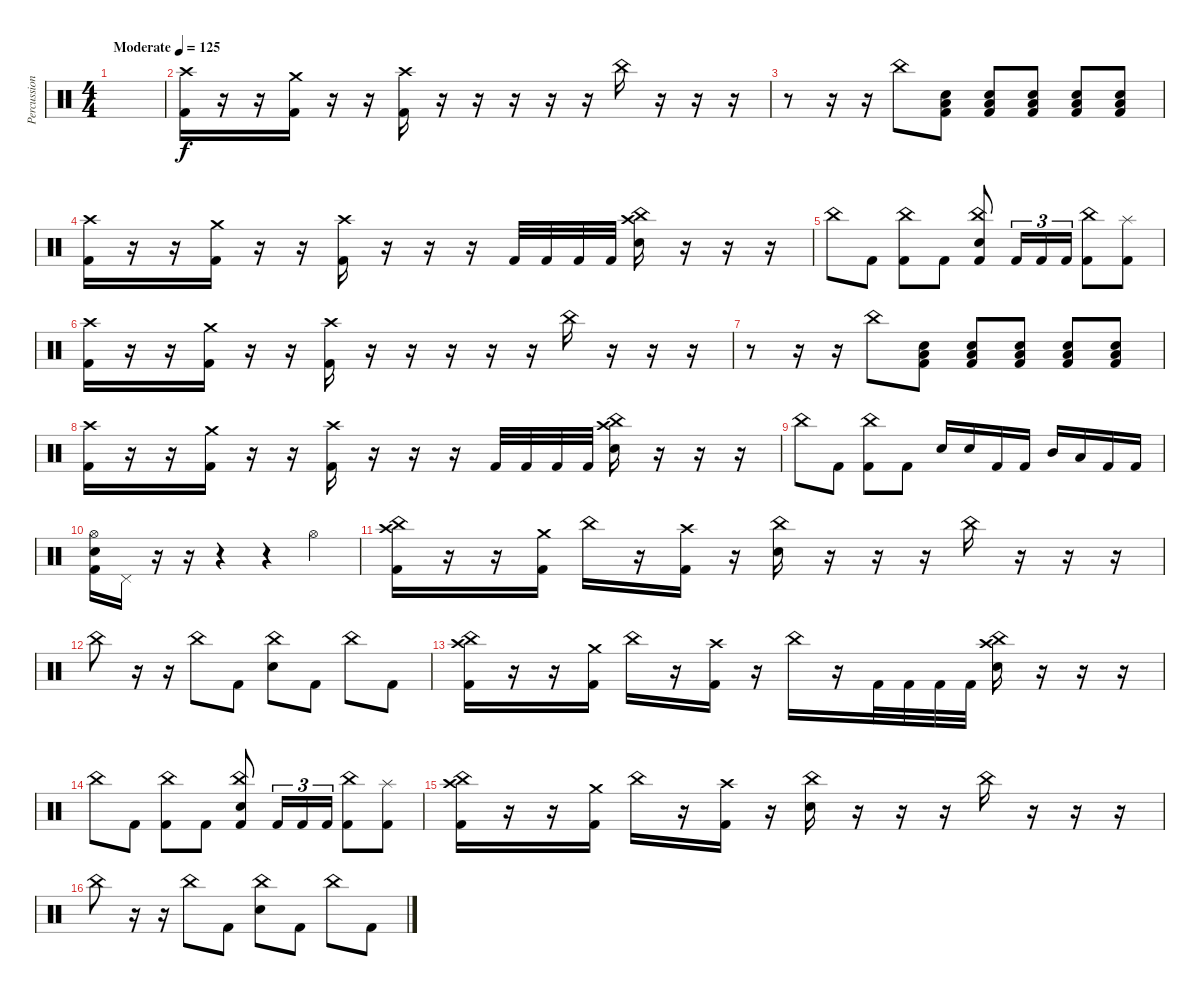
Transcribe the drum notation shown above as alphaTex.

\track ("Percussion" "Percussion") {instrument percussion}
\staff {score}
\articulation defaults
\ts (4 4)
\tempo (125 "Moderate")
\clef neutral
\ks c
|
("Crash high (hit)" "Kick (hit) 2").16 r.16 r.16 ("Crash medium (hit)" "Kick (hit) 2").16 r.16 r.16 ("Crash high (hit)" "Kick (hit) 2").16 r.16 r.16 r.16 r.16 r.16 "China (hit)".16 r.16 r.16 r.16 |
r.8 r.16 r.16 "China (hit)".8 ("Low Floor Tom (hit)" "Electric Snare (hit)" "Kick (hit) 2").8 ("Low Floor Tom (hit)" "Electric Snare (hit)" "Kick (hit) 2").8 ("Low Floor Tom (hit)" "Electric Snare (hit)" "Kick (hit) 2").8 ("Low Floor Tom (hit)" "Electric Snare (hit)" "Kick (hit) 2").8 ("Low Floor Tom (hit)" "Electric Snare (hit)" "Kick (hit) 2").8 |
("Crash high (hit)" "Kick (hit) 2").16 r.16 r.16 ("Crash medium (hit)" "Kick (hit) 2").16 r.16 r.16 ("Crash high (hit)" "Kick (hit) 2").16 r.16 r.16 r.16 "Kick (hit) 2".32 "Kick (hit) 2".32 "Kick (hit) 2".32 "Kick (hit) 2".32 ("Crash high (hit)" "China (hit)" "Electric Snare (hit)").16 r.16 r.16 r.16 |
"China (hit)".8 "Kick (hit) 2".8 ("China (hit)" "Kick (hit) 2").8 "Kick (hit) 2".8 ("China (hit)" "Electric Snare (hit)" "Kick (hit) 2").8 "Kick (hit) 2".16{tu (3 2)} "Kick (hit) 2".16{tu (3 2)} "Kick (hit) 2".16{tu (3 2)} ("China (hit)" "Kick (hit) 2").8 ("Splash (hit)" "Kick (hit) 2").8 |
("Crash high (hit)" "Kick (hit) 2").16 r.16 r.16 ("Crash medium (hit)" "Kick (hit) 2").16 r.16 r.16 ("Crash high (hit)" "Kick (hit) 2").16 r.16 r.16 r.16 r.16 r.16 "China (hit)".16 r.16 r.16 r.16 |
r.8 r.16 r.16 "China (hit)".8 ("Low Floor Tom (hit)" "Electric Snare (hit)" "Kick (hit) 2").8 ("Low Floor Tom (hit)" "Electric Snare (hit)" "Kick (hit) 2").8 ("Low Floor Tom (hit)" "Electric Snare (hit)" "Kick (hit) 2").8 ("Low Floor Tom (hit)" "Electric Snare (hit)" "Kick (hit) 2").8 ("Low Floor Tom (hit)" "Electric Snare (hit)" "Kick (hit) 2").8 |
("Crash high (hit)" "Kick (hit) 2").16 r.16 r.16 ("Crash medium (hit)" "Kick (hit) 2").16 r.16 r.16 ("Crash high (hit)" "Kick (hit) 2").16 r.16 r.16 r.16 "Kick (hit) 2".32 "Kick (hit) 2".32 "Kick (hit) 2".32 "Kick (hit) 2".32 ("Crash high (hit)" "China (hit)" "Electric Snare (hit)").16 r.16 r.16 r.16 |
"China (hit)".8 "Kick (hit) 2".8 ("China (hit)" "Kick (hit) 2").8 "Kick (hit) 2".8 "Electric Snare (hit)".16 "Electric Snare (hit)".16 "Kick (hit) 2".16 "Kick (hit) 2".16 "Mid Tom (hit)".16 "Low Tom (hit)".16 "Kick (hit) 2".16 "Kick (hit) 2".16 |
("Hi-Hat (open)" "Electric Snare (hit)" "Kick (hit) 2").16 "Pedal Hi-Hat (hit)".16 r.16 r.16 r.4 r.4 "Hi-Hat (open)".4 |
("Crash high (hit)" "China (hit)" "Kick (hit) 2").16 r.16 r.16 ("Crash medium (hit)" "Kick (hit) 2").16 "China (hit)".16 r.16 ("Crash high (hit)" "Kick (hit) 2").16 r.16 ("China (hit)" "Electric Snare (hit)").16 r.16 r.16 r.16 "China (hit)".16 r.16 r.16 r.16 |
"China (hit)".8 r.16 r.16 "China (hit)".8 "Kick (hit) 2".8 ("China (hit)" "Electric Snare (hit)").8 "Kick (hit) 2".8 "China (hit)".8 "Kick (hit) 2".8 |
("Crash high (hit)" "China (hit)" "Kick (hit) 2").16 r.16 r.16 ("Crash medium (hit)" "Kick (hit) 2").16 "China (hit)".16 r.16 ("Crash high (hit)" "Kick (hit) 2").16 r.16 "China (hit)".16 r.16 "Kick (hit) 2".32 "Kick (hit) 2".32 "Kick (hit) 2".32 "Kick (hit) 2".32 ("Crash high (hit)" "China (hit)" "Electric Snare (hit)").16 r.16 r.16 r.16 |
"China (hit)".8 "Kick (hit) 2".8 ("China (hit)" "Kick (hit) 2").8 "Kick (hit) 2".8 ("China (hit)" "Electric Snare (hit)" "Kick (hit) 2").8 "Kick (hit) 2".16{tu (3 2)} "Kick (hit) 2".16{tu (3 2)} "Kick (hit) 2".16{tu (3 2)} ("China (hit)" "Kick (hit) 2").8 ("Splash (hit)" "Kick (hit) 2").8 |
("Crash high (hit)" "China (hit)" "Kick (hit) 2").16 r.16 r.16 ("Crash medium (hit)" "Kick (hit) 2").16 "China (hit)".16 r.16 ("Crash high (hit)" "Kick (hit) 2").16 r.16 ("China (hit)" "Electric Snare (hit)").16 r.16 r.16 r.16 "China (hit)".16 r.16 r.16 r.16 |
"China (hit)".8 r.16 r.16 "China (hit)".8 "Kick (hit) 2".8 ("China (hit)" "Electric Snare (hit)").8 "Kick (hit) 2".8 "China (hit)".8 "Kick (hit) 2".8
